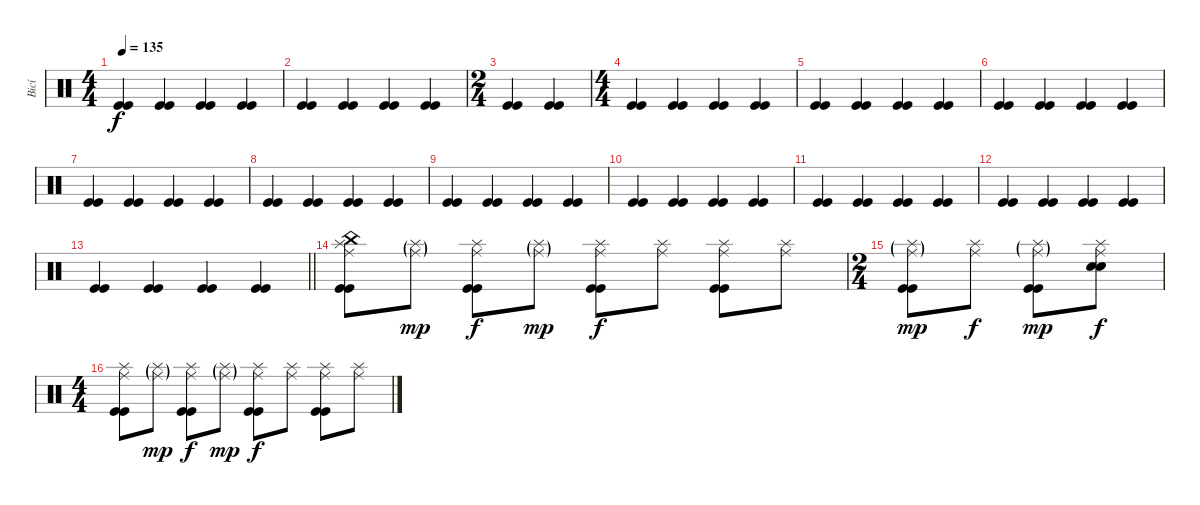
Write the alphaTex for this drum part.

\track ("Bicí" "Bicí") {instrument percussion}
\staff {score}
\articulation defaults
\ts (4 4)
\tempo 135
\clef neutral
\ks c
("Kick (hit)" "Kick (hit)").4{dy f} ("Kick (hit)" "Kick (hit)").4 ("Kick (hit)" "Kick (hit)").4 ("Kick (hit)" "Kick (hit)").4 |
("Kick (hit)" "Kick (hit)").4 ("Kick (hit)" "Kick (hit)").4 ("Kick (hit)" "Kick (hit)").4 ("Kick (hit)" "Kick (hit)").4 |
\ts (2 4)
("Kick (hit)" "Kick (hit)").4 ("Kick (hit)" "Kick (hit)").4 |
\ts (4 4)
("Kick (hit)" "Kick (hit)").4 ("Kick (hit)" "Kick (hit)").4 ("Kick (hit)" "Kick (hit)").4 ("Kick (hit)" "Kick (hit)").4 |
("Kick (hit)" "Kick (hit)").4 ("Kick (hit)" "Kick (hit)").4 ("Kick (hit)" "Kick (hit)").4 ("Kick (hit)" "Kick (hit)").4 |
("Kick (hit)" "Kick (hit)").4 ("Kick (hit)" "Kick (hit)").4 ("Kick (hit)" "Kick (hit)").4 ("Kick (hit)" "Kick (hit)").4 |
("Kick (hit)" "Kick (hit)").4 ("Kick (hit)" "Kick (hit)").4 ("Kick (hit)" "Kick (hit)").4 ("Kick (hit)" "Kick (hit)").4 |
("Kick (hit)" "Kick (hit)").4 ("Kick (hit)" "Kick (hit)").4 ("Kick (hit)" "Kick (hit)").4 ("Kick (hit)" "Kick (hit)").4 |
("Kick (hit)" "Kick (hit)").4 ("Kick (hit)" "Kick (hit)").4 ("Kick (hit)" "Kick (hit)").4 ("Kick (hit)" "Kick (hit)").4 |
("Kick (hit)" "Kick (hit)").4 ("Kick (hit)" "Kick (hit)").4 ("Kick (hit)" "Kick (hit)").4 ("Kick (hit)" "Kick (hit)").4 |
("Kick (hit)" "Kick (hit)").4 ("Kick (hit)" "Kick (hit)").4 ("Kick (hit)" "Kick (hit)").4 ("Kick (hit)" "Kick (hit)").4 |
("Kick (hit)" "Kick (hit)").4 ("Kick (hit)" "Kick (hit)").4 ("Kick (hit)" "Kick (hit)").4 ("Kick (hit)" "Kick (hit)").4 |
\barLineRight lightlight
("Kick (hit)" "Kick (hit)").4 ("Kick (hit)" "Kick (hit)").4 ("Kick (hit)" "Kick (hit)").4 ("Kick (hit)" "Kick (hit)").4 |
\section ("" "")
("China (hit)" "Splash (hit)" "Ride (middle)" "Kick (hit)" "Kick (hit)").8 ("Splash (hit)"{g} "Ride (middle)"{g}).8{dy mp} ("Splash (hit)" "Ride (middle)" "Kick (hit)" "Kick (hit)").8{dy f} ("Splash (hit)"{g} "Ride (middle)"{g}).8{dy mp} ("Splash (hit)" "Ride (middle)" "Kick (hit)" "Kick (hit)").8{dy f} ("Splash (hit)" "Ride (middle)").8 ("Splash (hit)" "Ride (middle)" "Kick (hit)" "Kick (hit)").8 ("Splash (hit)" "Ride (middle)").8 |
\ts (2 4)
("Splash (hit)"{g} "Ride (middle)"{g} "Kick (hit)" "Kick (hit)").8{dy mp} ("Splash (hit)" "Ride (middle)").8{dy f} ("Splash (hit)"{g} "Ride (middle)"{g} "Kick (hit)" "Kick (hit)").8{dy mp} ("Splash (hit)" "Ride (middle)" "Electric Snare (hit)" "Electric Snare (hit)").8{dy f} |
\ts (4 4)
("Splash (hit)" "Ride (middle)" "Kick (hit)" "Kick (hit)").8 ("Splash (hit)"{g} "Ride (middle)"{g}).8{dy mp} ("Splash (hit)" "Ride (middle)" "Kick (hit)" "Kick (hit)").8{dy f} ("Splash (hit)"{g} "Ride (middle)"{g}).8{dy mp} ("Splash (hit)" "Ride (middle)" "Kick (hit)" "Kick (hit)").8{dy f} ("Splash (hit)" "Ride (middle)").8 ("Splash (hit)" "Ride (middle)" "Kick (hit)" "Kick (hit)").8 ("Splash (hit)" "Ride (middle)").8
